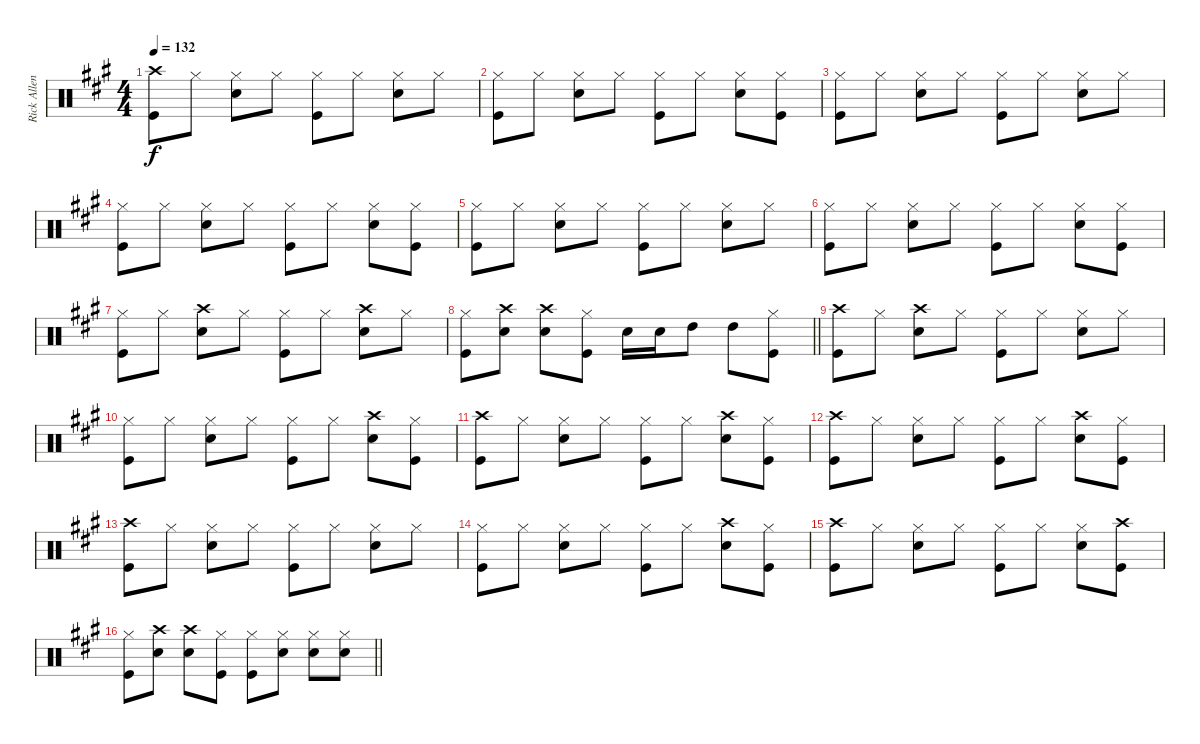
\track ("Rick Allen" "Rick Allen") {instrument percussion}
\staff {score}
\articulation defaults
\ts (4 4)
\tempo 132
\clef neutral
\ks a
("Crash high (hit)" "Kick (hit)").8{dy f} "Hi-Hat (closed)".8 ("Hi-Hat (closed)" "Snare (hit) 2").8 "Hi-Hat (closed)".8 ("Hi-Hat (closed)" "Kick (hit)").8 "Hi-Hat (closed)".8 ("Hi-Hat (closed)" "Snare (hit) 2").8 "Hi-Hat (closed)".8 |
("Hi-Hat (closed)" "Kick (hit)").8 "Hi-Hat (closed)".8 ("Hi-Hat (closed)" "Snare (hit) 2").8 "Hi-Hat (closed)".8 ("Hi-Hat (closed)" "Kick (hit)").8 "Hi-Hat (closed)".8 ("Hi-Hat (closed)" "Snare (hit) 2").8 ("Hi-Hat (closed)" "Kick (hit)").8 |
("Hi-Hat (closed)" "Kick (hit)").8 "Hi-Hat (closed)".8 ("Hi-Hat (closed)" "Snare (hit) 2").8 "Hi-Hat (closed)".8 ("Hi-Hat (closed)" "Kick (hit)").8 "Hi-Hat (closed)".8 ("Hi-Hat (closed)" "Snare (hit) 2").8 "Hi-Hat (closed)".8 |
("Hi-Hat (closed)" "Kick (hit)").8 "Hi-Hat (closed)".8 ("Hi-Hat (closed)" "Snare (hit) 2").8 "Hi-Hat (closed)".8 ("Hi-Hat (closed)" "Kick (hit)").8 "Hi-Hat (closed)".8 ("Hi-Hat (closed)" "Snare (hit) 2").8 ("Hi-Hat (closed)" "Kick (hit)").8 |
("Hi-Hat (closed)" "Kick (hit)").8 "Hi-Hat (closed)".8 ("Hi-Hat (closed)" "Snare (hit) 2").8 "Hi-Hat (closed)".8 ("Hi-Hat (closed)" "Kick (hit)").8 "Hi-Hat (closed)".8 ("Hi-Hat (closed)" "Snare (hit) 2").8 "Hi-Hat (closed)".8 |
("Hi-Hat (closed)" "Kick (hit)").8 "Hi-Hat (closed)".8 ("Hi-Hat (closed)" "Snare (hit) 2").8 "Hi-Hat (closed)".8 ("Hi-Hat (closed)" "Kick (hit)").8 "Hi-Hat (closed)".8 ("Hi-Hat (closed)" "Snare (hit) 2").8 ("Hi-Hat (closed)" "Kick (hit)").8 |
("Hi-Hat (closed)" "Kick (hit)").8 "Hi-Hat (closed)".8 ("Crash high (hit)" "Snare (hit) 2").8 "Hi-Hat (closed)".8 ("Hi-Hat (closed)" "Kick (hit)").8 "Hi-Hat (closed)".8 ("Crash high (hit)" "Snare (hit) 2").8 "Hi-Hat (closed)".8 |
\barLineRight lightlight
("Hi-Hat (closed)" "Kick (hit)").8 ("Crash high (hit)" "Snare (hit) 2").8 ("Crash high (hit)" "Snare (hit) 2").8 ("Hi-Hat (closed)" "Kick (hit)").8 "Snare (hit) 2".16 "Snare (hit) 2".16 "High Tom (hit)".8 "High Tom (hit)".8 ("Hi-Hat (closed)" "Kick (hit)").8 |
("Crash high (hit)" "Kick (hit)").8 "Hi-Hat (closed)".8 ("Crash high (hit)" "Snare (hit) 2").8 "Hi-Hat (closed)".8 ("Hi-Hat (closed)" "Kick (hit)").8 "Hi-Hat (closed)".8 ("Hi-Hat (closed)" "Snare (hit) 2").8 "Hi-Hat (closed)".8 |
("Hi-Hat (closed)" "Kick (hit)").8 "Hi-Hat (closed)".8 ("Hi-Hat (closed)" "Snare (hit) 2").8 "Hi-Hat (closed)".8 ("Hi-Hat (closed)" "Kick (hit)").8 "Hi-Hat (closed)".8 ("Crash high (hit)" "Snare (hit) 2").8 ("Hi-Hat (closed)" "Kick (hit)").8 |
("Crash high (hit)" "Kick (hit)").8 "Hi-Hat (closed)".8 ("Hi-Hat (closed)" "Snare (hit) 2").8 "Hi-Hat (closed)".8 ("Hi-Hat (closed)" "Kick (hit)").8 "Hi-Hat (closed)".8 ("Crash high (hit)" "Snare (hit) 2").8 ("Hi-Hat (closed)" "Kick (hit)").8 |
("Crash high (hit)" "Kick (hit)").8 "Hi-Hat (closed)".8 ("Hi-Hat (closed)" "Snare (hit) 2").8 "Hi-Hat (closed)".8 ("Hi-Hat (closed)" "Kick (hit)").8 "Hi-Hat (closed)".8 ("Crash high (hit)" "Snare (hit) 2").8 ("Hi-Hat (closed)" "Kick (hit)").8 |
("Crash high (hit)" "Kick (hit)").8 "Hi-Hat (closed)".8 ("Hi-Hat (closed)" "Snare (hit) 2").8 "Hi-Hat (closed)".8 ("Hi-Hat (closed)" "Kick (hit)").8 "Hi-Hat (closed)".8 ("Hi-Hat (closed)" "Snare (hit) 2").8 "Hi-Hat (closed)".8 |
("Hi-Hat (closed)" "Kick (hit)").8 "Hi-Hat (closed)".8 ("Hi-Hat (closed)" "Snare (hit) 2").8 "Hi-Hat (closed)".8 ("Hi-Hat (closed)" "Kick (hit)").8 "Hi-Hat (closed)".8 ("Crash high (hit)" "Snare (hit) 2").8 ("Hi-Hat (closed)" "Kick (hit)").8 |
("Crash high (hit)" "Kick (hit)").8 "Hi-Hat (closed)".8 ("Hi-Hat (closed)" "Snare (hit) 2").8 "Hi-Hat (closed)".8 ("Hi-Hat (closed)" "Kick (hit)").8 "Hi-Hat (closed)".8 ("Hi-Hat (closed)" "Snare (hit) 2").8 ("Crash high (hit)" "Kick (hit)").8 |
\barLineRight lightlight
("Hi-Hat (closed)" "Kick (hit)").8 ("Crash high (hit)" "Snare (hit) 2").8 ("Crash high (hit)" "Snare (hit) 2").8 ("Hi-Hat (closed)" "Kick (hit)").8 ("Hi-Hat (closed)" "Kick (hit)").8 ("Hi-Hat (closed)" "Snare (hit) 2").8 ("Hi-Hat (closed)" "Snare (hit) 2").8 ("Hi-Hat (closed)" "Snare (hit) 2").8
